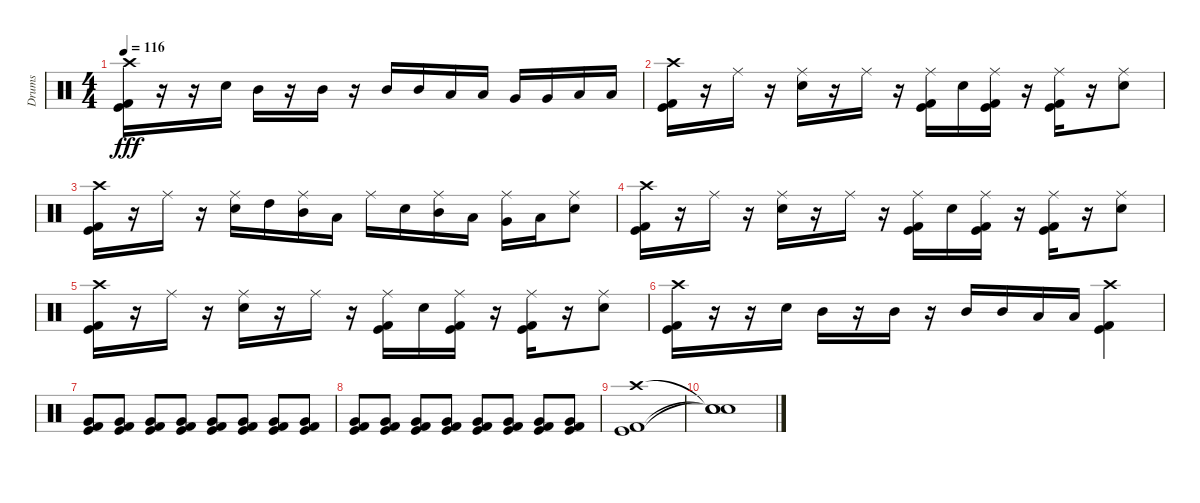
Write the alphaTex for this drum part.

\track ("Drums" "Drums") {instrument percussion}
\staff {score}
\articulation defaults
\ts (4 4)
\tempo 116
\clef neutral
\ks c
("Crash high (hit)" "Kick (hit)" "Kick (hit) 2").16{dy fff} r.16 r.16 "Snare (hit) 2".16 "Mid Tom (hit)".16 r.16 "Mid Tom (hit)".16 r.16 "Mid Tom (hit)".16 "Mid Tom (hit)".16 "Low Tom (hit)".16 "Low Tom (hit)".16 "Very Low Tom (hit)".16 "Very Low Tom (hit)".16 "Low Floor Tom (hit)".16 "Low Floor Tom (hit)".16 |
("Crash high (hit)" "Kick (hit)" "Kick (hit) 2").16 r.16 "Ride (middle)".16 r.16 ("Ride (middle)" "Snare (hit) 2").16 r.16 "Ride (middle)".16 r.16 ("Ride (middle)" "Kick (hit)" "Kick (hit) 2").16 "Snare (hit) 2".16 ("Ride (middle)" "Kick (hit)" "Kick (hit) 2").16 r.16 ("Ride (middle)" "Kick (hit)" "Kick (hit) 2").16 r.16 ("Ride (middle)" "Snare (hit) 2").8 |
("Crash high (hit)" "Kick (hit)" "Kick (hit) 2").16 r.16 "Ride (middle)".16 r.16 ("Ride (middle)" "Snare (hit) 2").16 "High Tom (hit)".16 ("Ride (middle)" "Mid Tom (hit)").16 "Low Tom (hit)".16 "Ride (middle)".16 "Snare (hit) 2".16 ("Ride (middle)" "Mid Tom (hit)").16 "Low Tom (hit)".16 ("Ride (middle)" "Very Low Tom (hit)").16 "Low Floor Tom (hit)".16 ("Ride (middle)" "Snare (hit) 2").8 |
("Crash high (hit)" "Kick (hit)" "Kick (hit) 2").16 r.16 "Ride (middle)".16 r.16 ("Ride (middle)" "Snare (hit) 2").16 r.16 "Ride (middle)".16 r.16 ("Ride (middle)" "Kick (hit)" "Kick (hit) 2").16 "Snare (hit) 2".16 ("Ride (middle)" "Kick (hit)" "Kick (hit) 2").16 r.16 ("Ride (middle)" "Kick (hit)" "Kick (hit) 2").16 r.16 ("Ride (middle)" "Snare (hit) 2").8 |
("Crash high (hit)" "Kick (hit)" "Kick (hit) 2").16 r.16 "Ride (middle)".16 r.16 ("Ride (middle)" "Snare (hit) 2").16 r.16 "Ride (middle)".16 r.16 ("Ride (middle)" "Kick (hit)" "Kick (hit) 2").16 "Snare (hit) 2".16 ("Ride (middle)" "Kick (hit)" "Kick (hit) 2").16 r.16 ("Ride (middle)" "Kick (hit)" "Kick (hit) 2").16 r.16 ("Ride (middle)" "Snare (hit) 2").8 |
("Crash high (hit)" "Kick (hit)" "Kick (hit) 2").16 r.16 r.16 "Snare (hit) 2".16 "Mid Tom (hit)".16 r.16 "Mid Tom (hit)".16 r.16 "Mid Tom (hit)".16 "Mid Tom (hit)".16 "Low Tom (hit)".16 "Low Tom (hit)".16 ("Crash high (hit)" "Kick (hit)" "Kick (hit) 2").4 |
("Very Low Tom (hit)" "Kick (hit)" "Kick (hit) 2").8 ("Very Low Tom (hit)" "Kick (hit)" "Kick (hit) 2").8 ("Very Low Tom (hit)" "Kick (hit)" "Kick (hit) 2").8 ("Very Low Tom (hit)" "Kick (hit)" "Kick (hit) 2").8 ("Very Low Tom (hit)" "Kick (hit)" "Kick (hit) 2").8 ("Very Low Tom (hit)" "Kick (hit)" "Kick (hit) 2").8 ("Very Low Tom (hit)" "Kick (hit)" "Kick (hit) 2").8 ("Very Low Tom (hit)" "Kick (hit)" "Kick (hit) 2").8 |
("Very Low Tom (hit)" "Kick (hit)" "Kick (hit) 2").8 ("Very Low Tom (hit)" "Kick (hit)" "Kick (hit) 2").8 ("Very Low Tom (hit)" "Kick (hit)" "Kick (hit) 2").8 ("Very Low Tom (hit)" "Kick (hit)" "Kick (hit) 2").8 ("Very Low Tom (hit)" "Kick (hit)" "Kick (hit) 2").8 ("Very Low Tom (hit)" "Kick (hit)" "Kick (hit) 2").8 ("Very Low Tom (hit)" "Kick (hit)" "Kick (hit) 2").8 ("Very Low Tom (hit)" "Kick (hit)" "Kick (hit) 2").8 |
("Crash high (hit)" "Kick (hit)" "Kick (hit) 2").1 |
("Snare (hit)"{t} "Snare (hit)"{t} "Snare (hit)"{t}).1
